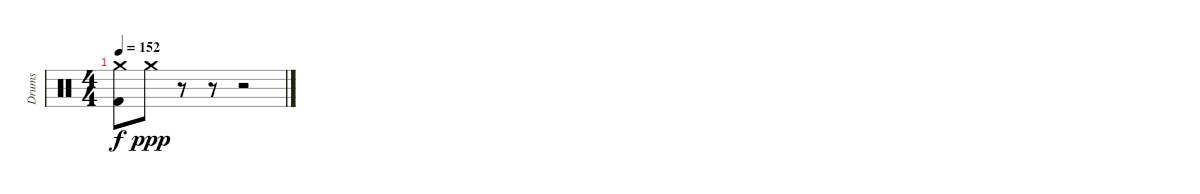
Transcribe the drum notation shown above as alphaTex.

\track ("Drums" "Drums") {instrument percussion}
\staff
\articulation defaults
\ts (4 4)
\tempo 152
\clef neutral
\ks c
("Crash medium (hit)" "Kick (hit) 2").8{dy f} "Crash medium (hit)".8{dy ppp} r.8 r.8 r.2
